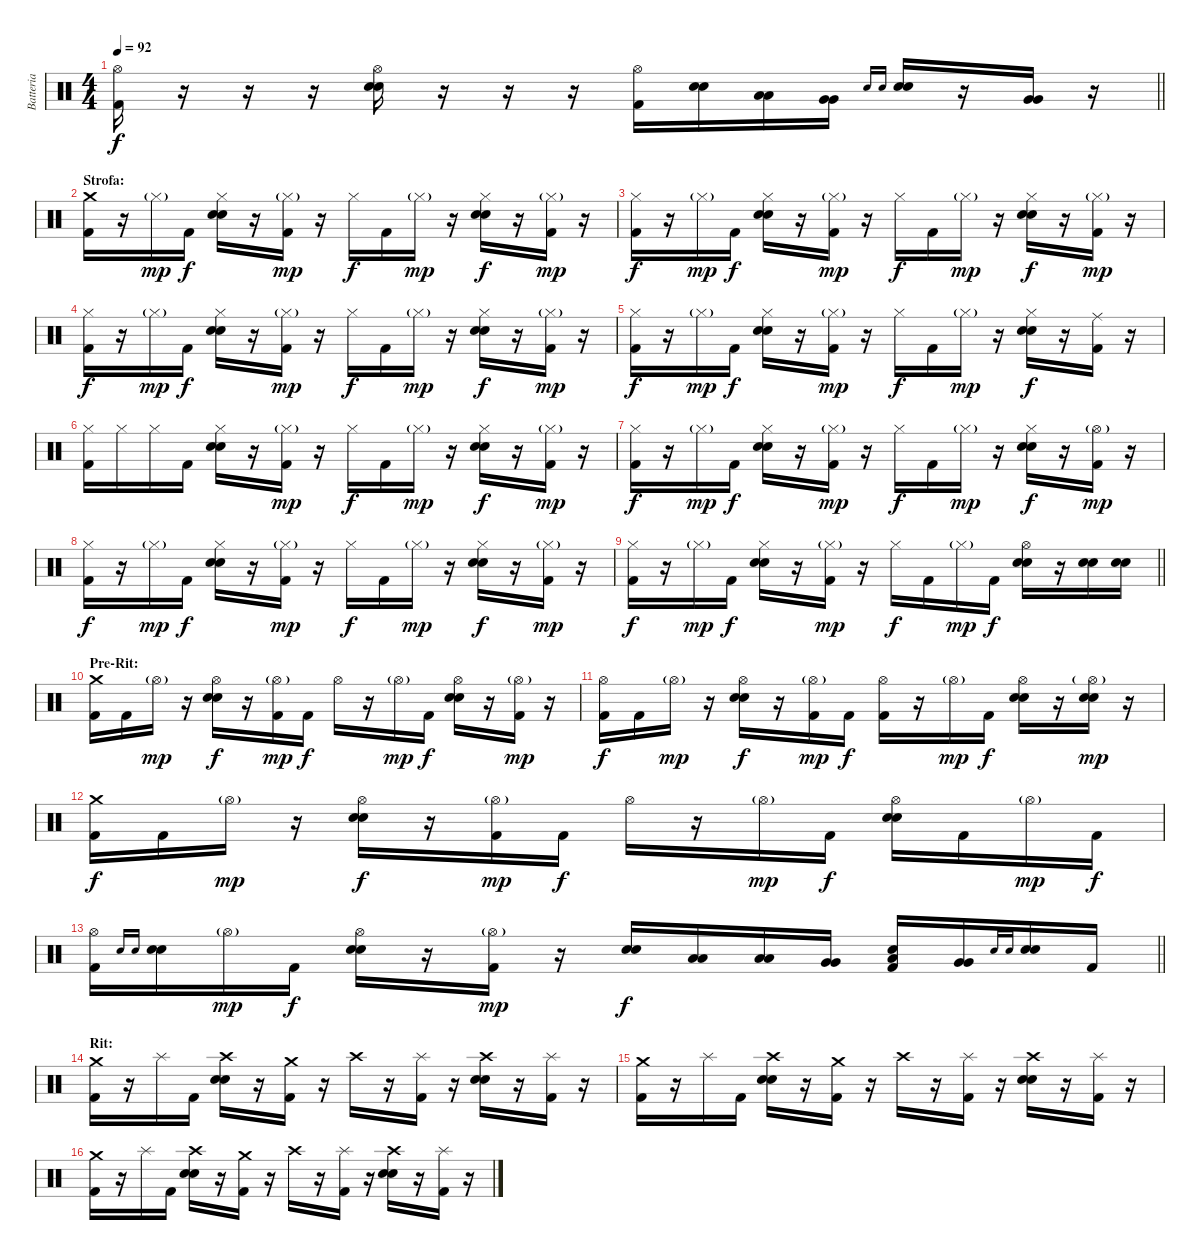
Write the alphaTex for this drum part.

\track ("Batteria" "Batteria") {instrument percussion}
\staff {score}
\articulation defaults
\ts (4 4)
\tempo 92
\clef neutral
\barLineRight lightlight
\ks c
("Kick (hit) 2" "Hi-Hat (open)").16{dy f} r.16 r.16 r.16 ("Snare (hit) 2" "Snare (hit) 2" "Hi-Hat (open)").16 r.16 r.16 r.16 ("Kick (hit) 2" "Hi-Hat (open)").16 ("Snare (hit) 2" "Snare (hit) 2").16 ("Low Tom (hit)" "Low Tom (hit)").16 ("Very Low Tom (hit)" "Very Low Tom (hit)").16 "Snare (hit) 2".16{gr onbeat} "Snare (hit) 2".16{gr onbeat} ("Snare (hit) 2" "Snare (hit) 2").16 r.16 ("Very Low Tom (hit)" "Very Low Tom (hit)").16 r.16 |
\section ("" "Strofa:")
("Kick (hit) 2" "Crash medium (hit)").16 r.16 "Hi-Hat (closed)"{g}.16{dy mp} "Kick (hit) 2".16{dy f} ("Snare (hit) 2" "Snare (hit) 2" "Hi-Hat (closed)").16 r.16 ("Kick (hit) 2" "Hi-Hat (closed)"{g}).16{dy mp} r.16 "Hi-Hat (closed)".16{dy f} "Kick (hit) 2".16 "Hi-Hat (closed)"{g}.16{dy mp} r.16 ("Snare (hit) 2" "Snare (hit) 2" "Hi-Hat (closed)").16{dy f} r.16 ("Kick (hit) 2" "Hi-Hat (closed)"{g}).16{dy mp} r.16 |
("Kick (hit) 2" "Hi-Hat (closed)").16{dy f} r.16 "Hi-Hat (closed)"{g}.16{dy mp} "Kick (hit) 2".16{dy f} ("Snare (hit) 2" "Snare (hit) 2" "Hi-Hat (closed)").16 r.16 ("Kick (hit) 2" "Hi-Hat (closed)"{g}).16{dy mp} r.16 "Hi-Hat (closed)".16{dy f} "Kick (hit) 2".16 "Hi-Hat (closed)"{g}.16{dy mp} r.16 ("Snare (hit) 2" "Snare (hit) 2" "Hi-Hat (closed)").16{dy f} r.16 ("Kick (hit) 2" "Hi-Hat (closed)"{g}).16{dy mp} r.16 |
("Kick (hit) 2" "Hi-Hat (closed)").16{dy f} r.16 "Hi-Hat (closed)"{g}.16{dy mp} "Kick (hit) 2".16{dy f} ("Snare (hit) 2" "Snare (hit) 2" "Hi-Hat (closed)").16 r.16 ("Kick (hit) 2" "Hi-Hat (closed)"{g}).16{dy mp} r.16 "Hi-Hat (closed)".16{dy f} "Kick (hit) 2".16 "Hi-Hat (closed)"{g}.16{dy mp} r.16 ("Snare (hit) 2" "Snare (hit) 2" "Hi-Hat (closed)").16{dy f} r.16 ("Kick (hit) 2" "Hi-Hat (closed)"{g}).16{dy mp} r.16 |
("Kick (hit) 2" "Hi-Hat (closed)").16{dy f} r.16 "Hi-Hat (closed)"{g}.16{dy mp} "Kick (hit) 2".16{dy f} ("Snare (hit) 2" "Snare (hit) 2" "Hi-Hat (closed)").16 r.16 ("Kick (hit) 2" "Hi-Hat (closed)"{g}).16{dy mp} r.16 "Hi-Hat (closed)".16{dy f} "Kick (hit) 2".16 "Hi-Hat (closed)"{g}.16{dy mp} r.16 ("Snare (hit) 2" "Snare (hit) 2" "Hi-Hat (closed)").16{dy f} r.16 ("Kick (hit) 2" "Ride (middle)").16 r.16 |
("Kick (hit) 2" "Hi-Hat (closed)").16 "Hi-Hat (closed)".16 "Hi-Hat (closed)".16 "Kick (hit) 2".16 ("Snare (hit) 2" "Snare (hit) 2" "Hi-Hat (closed)").16 r.16 ("Kick (hit) 2" "Hi-Hat (closed)"{g}).16{dy mp} r.16 "Hi-Hat (closed)".16{dy f} "Kick (hit) 2".16 "Hi-Hat (closed)"{g}.16{dy mp} r.16 ("Snare (hit) 2" "Snare (hit) 2" "Hi-Hat (closed)").16{dy f} r.16 ("Kick (hit) 2" "Hi-Hat (closed)"{g}).16{dy mp} r.16 |
("Kick (hit) 2" "Hi-Hat (closed)").16{dy f} r.16 "Hi-Hat (closed)"{g}.16{dy mp} "Kick (hit) 2".16{dy f} ("Snare (hit) 2" "Snare (hit) 2" "Hi-Hat (closed)").16 r.16 ("Kick (hit) 2" "Hi-Hat (closed)"{g}).16{dy mp} r.16 "Hi-Hat (closed)".16{dy f} "Kick (hit) 2".16 "Hi-Hat (closed)"{g}.16{dy mp} r.16 ("Snare (hit) 2" "Snare (hit) 2" "Hi-Hat (closed)").16{dy f} r.16 ("Kick (hit) 2" "Hi-Hat (open)"{g}).16{dy mp} r.16 |
("Kick (hit) 2" "Hi-Hat (closed)").16{dy f} r.16 "Hi-Hat (closed)"{g}.16{dy mp} "Kick (hit) 2".16{dy f} ("Snare (hit) 2" "Snare (hit) 2" "Hi-Hat (closed)").16 r.16 ("Kick (hit) 2" "Hi-Hat (closed)"{g}).16{dy mp} r.16 "Hi-Hat (closed)".16{dy f} "Kick (hit) 2".16 "Hi-Hat (closed)"{g}.16{dy mp} r.16 ("Snare (hit) 2" "Snare (hit) 2" "Hi-Hat (closed)").16{dy f} r.16 ("Kick (hit) 2" "Hi-Hat (closed)"{g}).16{dy mp} r.16 |
\barLineRight lightlight
("Kick (hit) 2" "Hi-Hat (closed)").16{dy f} r.16 "Hi-Hat (closed)"{g}.16{dy mp} "Kick (hit) 2".16{dy f} ("Snare (hit) 2" "Snare (hit) 2" "Hi-Hat (closed)").16 r.16 ("Kick (hit) 2" "Hi-Hat (closed)"{g}).16{dy mp} r.16 "Hi-Hat (closed)".16{dy f} "Kick (hit) 2".16 "Hi-Hat (closed)"{g}.16{dy mp} "Kick (hit) 2".16{dy f} ("Snare (hit) 2" "Snare (hit) 2" "Hi-Hat (open)").16 r.16 ("Snare (hit) 2" "Snare (hit) 2").16 ("Snare (hit) 2" "Snare (hit) 2").16 |
\section ("" "Pre-Rit:")
("Kick (hit) 2" "Crash medium (hit)").16 "Kick (hit) 2".16 "Hi-Hat (open)"{g}.16{dy mp} r.16 ("Snare (hit) 2" "Snare (hit) 2" "Hi-Hat (open)").16{dy f} r.16 ("Kick (hit) 2" "Hi-Hat (open)"{g}).16{dy mp} "Kick (hit) 2".16{dy f} "Hi-Hat (open)".16 r.16 "Hi-Hat (open)"{g}.16{dy mp} "Kick (hit) 2".16{dy f} ("Snare (hit) 2" "Snare (hit) 2" "Hi-Hat (open)").16 r.16 ("Kick (hit) 2" "Hi-Hat (open)"{g}).16{dy mp} r.16 |
("Kick (hit) 2" "Hi-Hat (open)").16{dy f} "Kick (hit) 2".16 "Hi-Hat (open)"{g}.16{dy mp} r.16 ("Snare (hit) 2" "Snare (hit) 2" "Hi-Hat (open)").16{dy f} r.16 ("Kick (hit) 2" "Hi-Hat (open)"{g}).16{dy mp} "Kick (hit) 2".16{dy f} ("Kick (hit) 2" "Hi-Hat (open)").16 r.16 "Hi-Hat (open)"{g}.16{dy mp} "Kick (hit) 2".16{dy f} ("Snare (hit) 2" "Snare (hit) 2" "Hi-Hat (open)").16 r.16 ("Snare (hit) 2" "Snare (hit) 2" "Hi-Hat (open)"{g}).16{dy mp} r.16 |
("Kick (hit) 2" "Crash medium (hit)").16{dy f} "Kick (hit) 2".16 "Hi-Hat (open)"{g}.16{dy mp} r.16 ("Snare (hit) 2" "Snare (hit) 2" "Hi-Hat (open)").16{dy f} r.16 ("Kick (hit) 2" "Hi-Hat (open)"{g}).16{dy mp} "Kick (hit) 2".16{dy f} "Hi-Hat (open)".16 r.16 "Hi-Hat (open)"{g}.16{dy mp} "Kick (hit) 2".16{dy f} ("Snare (hit) 2" "Snare (hit) 2" "Hi-Hat (open)").16 "Kick (hit) 2".16 "Hi-Hat (open)"{g}.16{dy mp} "Kick (hit) 2".16{dy f} |
\barLineRight lightlight
("Kick (hit) 2" "Hi-Hat (open)").16 "Snare (hit) 2".16{gr onbeat} "Snare (hit) 2".16{gr onbeat} ("Snare (hit) 2" "Snare (hit) 2").16 "Hi-Hat (open)"{g}.16{dy mp} "Kick (hit) 2".16{dy f} ("Snare (hit) 2" "Snare (hit) 2" "Hi-Hat (open)").16 r.16 ("Kick (hit) 2" "Hi-Hat (open)"{g}).16{dy mp} r.16 ("Snare (hit) 2" "Snare (hit) 2").16{dy f} ("Low Tom (hit)" "Low Tom (hit)").16 ("Low Tom (hit)" "Low Tom (hit)").16 ("Very Low Tom (hit)" "Very Low Tom (hit)").16 ("Kick (hit) 2" "Snare (hit) 2" "Low Floor Tom (hit)").16 ("Very Low Tom (hit)" "Very Low Tom (hit)").16 "Snare (hit) 2".16{gr onbeat} "Snare (hit) 2".16{gr onbeat} ("Snare (hit) 2" "Snare (hit) 2").16 "Kick (hit) 2".16 |
\section ("" "Rit:")
("Kick (hit) 2" "Crash medium (hit)").16 r.16 "Splash (hit)".16 "Kick (hit) 2".16 ("Snare (hit) 2" "Snare (hit) 2" "Crash high (hit)").16 r.16 ("Kick (hit) 2" "Crash medium (hit)").16 r.16 "Crash high (hit)".16 r.16 ("Kick (hit) 2" "Splash (hit)").16 r.16 ("Snare (hit) 2" "Snare (hit) 2" "Crash high (hit)").16 r.16 ("Kick (hit) 2" "Splash (hit)").16 r.16 |
("Kick (hit) 2" "Crash medium (hit)").16 r.16 "Splash (hit)".16 "Kick (hit) 2".16 ("Snare (hit) 2" "Snare (hit) 2" "Crash high (hit)").16 r.16 ("Kick (hit) 2" "Crash medium (hit)").16 r.16 "Crash high (hit)".16 r.16 ("Kick (hit) 2" "Splash (hit)").16 r.16 ("Snare (hit) 2" "Snare (hit) 2" "Crash high (hit)").16 r.16 ("Kick (hit) 2" "Splash (hit)").16 r.16 |
("Kick (hit) 2" "Crash medium (hit)").16 r.16 "Splash (hit)".16 "Kick (hit) 2".16 ("Snare (hit) 2" "Snare (hit) 2" "Crash high (hit)").16 r.16 ("Kick (hit) 2" "Crash medium (hit)").16 r.16 "Crash high (hit)".16 r.16 ("Kick (hit) 2" "Splash (hit)").16 r.16 ("Snare (hit) 2" "Snare (hit) 2" "Crash high (hit)").16 r.16 ("Kick (hit) 2" "Splash (hit)").16 r.16
